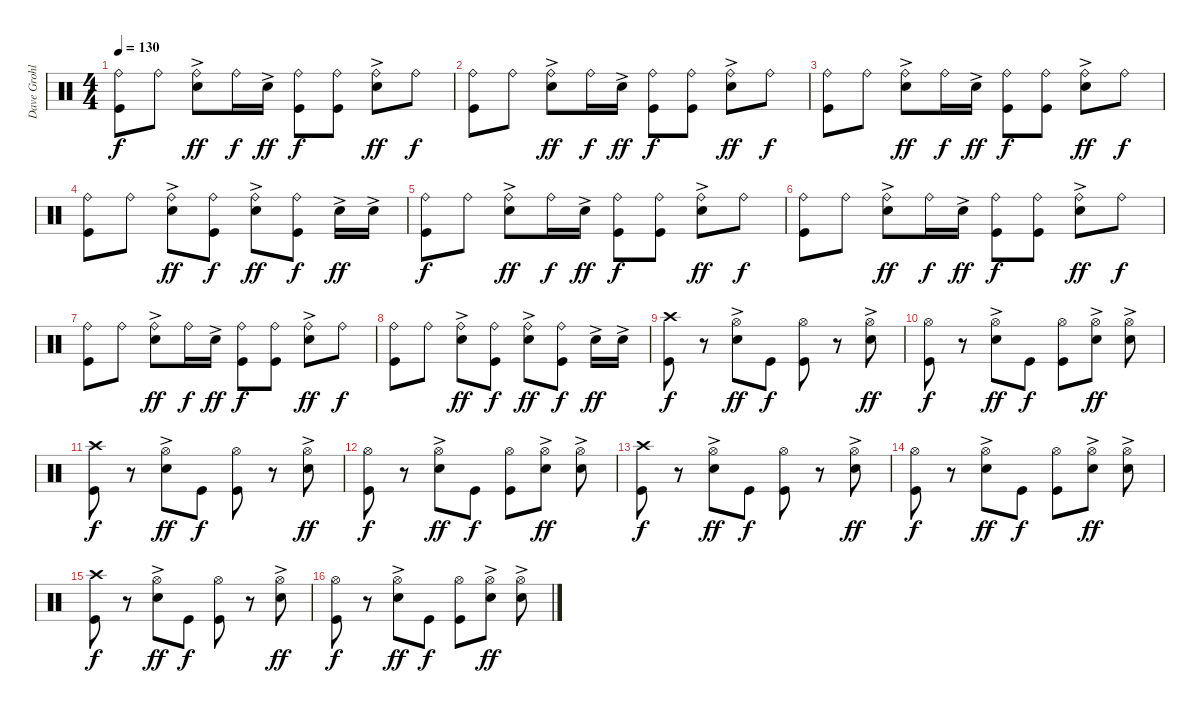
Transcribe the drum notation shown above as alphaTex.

\track ("Dave Grohl" "Dave Grohl") {instrument percussion}
\staff {score}
\articulation defaults
\ts (4 4)
\tempo 130
\clef neutral
\ks c
("Ride (bell)" "Kick (hit)").8{dy f} "Ride (bell)".8 ("Ride (bell)" "Electric Snare (hit)"{ac}).8{dy ff} "Ride (bell)".16{dy f} "Electric Snare (hit)"{ac}.16{dy ff} ("Ride (bell)" "Kick (hit)").8{dy f} ("Ride (bell)" "Kick (hit)").8 ("Ride (bell)" "Electric Snare (hit)"{ac}).8{dy ff} "Ride (bell)".8{dy f} |
("Ride (bell)" "Kick (hit)").8 "Ride (bell)".8 ("Ride (bell)" "Electric Snare (hit)"{ac}).8{dy ff} "Ride (bell)".16{dy f} "Electric Snare (hit)"{ac}.16{dy ff} ("Ride (bell)" "Kick (hit)").8{dy f} ("Ride (bell)" "Kick (hit)").8 ("Ride (bell)" "Electric Snare (hit)"{ac}).8{dy ff} "Ride (bell)".8{dy f} |
("Ride (bell)" "Kick (hit)").8 "Ride (bell)".8 ("Ride (bell)" "Electric Snare (hit)"{ac}).8{dy ff} "Ride (bell)".16{dy f} "Electric Snare (hit)"{ac}.16{dy ff} ("Ride (bell)" "Kick (hit)").8{dy f} ("Ride (bell)" "Kick (hit)").8 ("Ride (bell)" "Electric Snare (hit)"{ac}).8{dy ff} "Ride (bell)".8{dy f} |
("Ride (bell)" "Kick (hit)").8 "Ride (bell)".8 ("Ride (bell)" "Electric Snare (hit)"{ac}).8{dy ff} ("Ride (bell)" "Kick (hit)").8{dy f} ("Ride (bell)" "Electric Snare (hit)"{ac}).8{dy ff} ("Ride (bell)" "Kick (hit)").8{dy f} "Electric Snare (hit)"{ac}.16{dy ff} "Electric Snare (hit)"{ac}.16 |
("Ride (bell)" "Kick (hit)").8{dy f} "Ride (bell)".8 ("Ride (bell)" "Electric Snare (hit)"{ac}).8{dy ff} "Ride (bell)".16{dy f} "Electric Snare (hit)"{ac}.16{dy ff} ("Ride (bell)" "Kick (hit)").8{dy f} ("Ride (bell)" "Kick (hit)").8 ("Ride (bell)" "Electric Snare (hit)"{ac}).8{dy ff} "Ride (bell)".8{dy f} |
("Ride (bell)" "Kick (hit)").8 "Ride (bell)".8 ("Ride (bell)" "Electric Snare (hit)"{ac}).8{dy ff} "Ride (bell)".16{dy f} "Electric Snare (hit)"{ac}.16{dy ff} ("Ride (bell)" "Kick (hit)").8{dy f} ("Ride (bell)" "Kick (hit)").8 ("Ride (bell)" "Electric Snare (hit)"{ac}).8{dy ff} "Ride (bell)".8{dy f} |
("Ride (bell)" "Kick (hit)").8 "Ride (bell)".8 ("Ride (bell)" "Electric Snare (hit)"{ac}).8{dy ff} "Ride (bell)".16{dy f} "Electric Snare (hit)"{ac}.16{dy ff} ("Ride (bell)" "Kick (hit)").8{dy f} ("Ride (bell)" "Kick (hit)").8 ("Ride (bell)" "Electric Snare (hit)"{ac}).8{dy ff} "Ride (bell)".8{dy f} |
("Ride (bell)" "Kick (hit)").8 "Ride (bell)".8 ("Ride (bell)" "Electric Snare (hit)"{ac}).8{dy ff} ("Ride (bell)" "Kick (hit)").8{dy f} ("Ride (bell)" "Electric Snare (hit)"{ac}).8{dy ff} ("Ride (bell)" "Kick (hit)").8{dy f} "Electric Snare (hit)"{ac}.16{dy ff} "Electric Snare (hit)"{ac}.16 |
("Crash high (hit)" "Kick (hit)").8{dy f} r.8 ("Hi-Hat (open)" "Electric Snare (hit)"{ac}).8{dy ff} "Kick (hit)".8{dy f} ("Hi-Hat (open)" "Kick (hit)").8 r.8 ("Hi-Hat (open)" "Electric Snare (hit)"{ac}).8{dy ff} |
("Hi-Hat (open)" "Kick (hit)").8{dy f} r.8 ("Hi-Hat (open)" "Electric Snare (hit)"{ac}).8{dy ff} "Kick (hit)".8{dy f} ("Hi-Hat (open)" "Kick (hit)").8 ("Hi-Hat (open)" "Electric Snare (hit)"{ac}).8{dy ff} ("Hi-Hat (open)" "Electric Snare (hit)"{ac}).8 |
("Crash high (hit)" "Kick (hit)").8{dy f} r.8 ("Hi-Hat (open)" "Electric Snare (hit)"{ac}).8{dy ff} "Kick (hit)".8{dy f} ("Hi-Hat (open)" "Kick (hit)").8 r.8 ("Hi-Hat (open)" "Electric Snare (hit)"{ac}).8{dy ff} |
("Hi-Hat (open)" "Kick (hit)").8{dy f} r.8 ("Hi-Hat (open)" "Electric Snare (hit)"{ac}).8{dy ff} "Kick (hit)".8{dy f} ("Hi-Hat (open)" "Kick (hit)").8 ("Hi-Hat (open)" "Electric Snare (hit)"{ac}).8{dy ff} ("Hi-Hat (open)" "Electric Snare (hit)"{ac}).8 |
("Crash high (hit)" "Kick (hit)").8{dy f} r.8 ("Hi-Hat (open)" "Electric Snare (hit)"{ac}).8{dy ff} "Kick (hit)".8{dy f} ("Hi-Hat (open)" "Kick (hit)").8 r.8 ("Hi-Hat (open)" "Electric Snare (hit)"{ac}).8{dy ff} |
("Hi-Hat (open)" "Kick (hit)").8{dy f} r.8 ("Hi-Hat (open)" "Electric Snare (hit)"{ac}).8{dy ff} "Kick (hit)".8{dy f} ("Hi-Hat (open)" "Kick (hit)").8 ("Hi-Hat (open)" "Electric Snare (hit)"{ac}).8{dy ff} ("Hi-Hat (open)" "Electric Snare (hit)"{ac}).8 |
("Crash high (hit)" "Kick (hit)").8{dy f} r.8 ("Hi-Hat (open)" "Electric Snare (hit)"{ac}).8{dy ff} "Kick (hit)".8{dy f} ("Hi-Hat (open)" "Kick (hit)").8 r.8 ("Hi-Hat (open)" "Electric Snare (hit)"{ac}).8{dy ff} |
("Hi-Hat (open)" "Kick (hit)").8{dy f} r.8 ("Hi-Hat (open)" "Electric Snare (hit)"{ac}).8{dy ff} "Kick (hit)".8{dy f} ("Hi-Hat (open)" "Kick (hit)").8 ("Hi-Hat (open)" "Electric Snare (hit)"{ac}).8{dy ff} ("Hi-Hat (open)" "Electric Snare (hit)"{ac}).8
